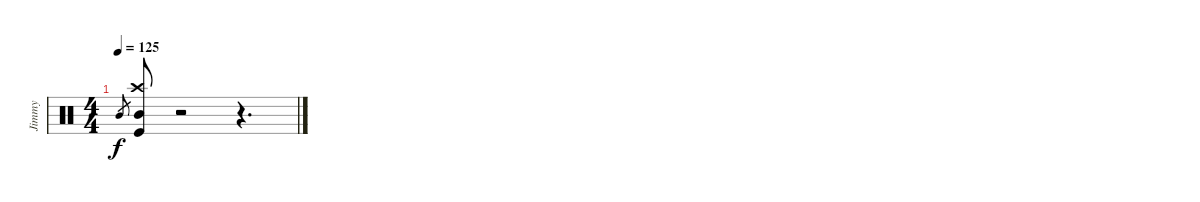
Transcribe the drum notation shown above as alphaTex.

\track ("Jimmy" "Jimmy") {instrument percussion}
\staff {score}
\articulation defaults
\ts (4 4)
\tempo 125
\clef neutral
\ks c "Mid Tom (hit)".8{gr dy f}
("Crash high (hit)" "Kick (hit)" "Mid Tom (hit)").8 r.2 r.4{d}
